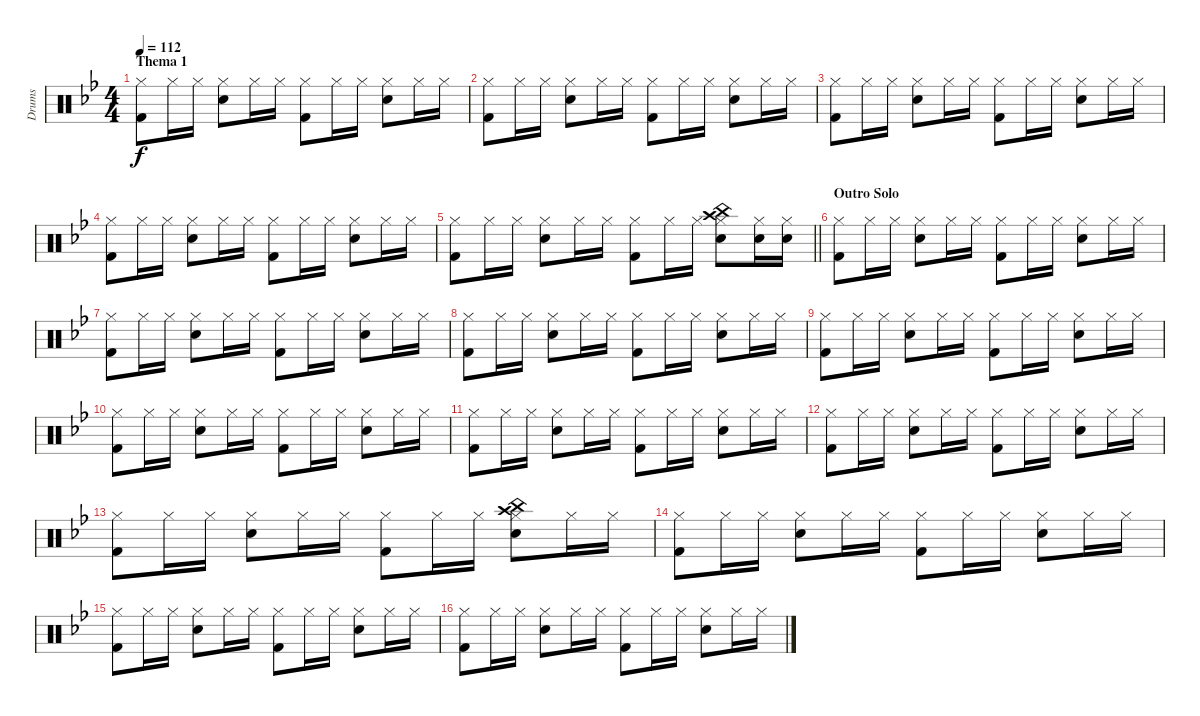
\track ("Drums" "Drums") {instrument percussion}
\staff {score}
\articulation defaults
\ts (4 4)
\section ("" "Thema 1")
\tempo 112
\clef neutral
\ks bb
("Hi-Hat (closed)" "Kick (hit) 2").8{dy f} "Hi-Hat (closed)".16 "Hi-Hat (closed)".16 ("Snare (hit) 2" "Hi-Hat (closed)").8 "Hi-Hat (closed)".16 "Hi-Hat (closed)".16 ("Hi-Hat (closed)" "Kick (hit) 2").8 "Hi-Hat (closed)".16 "Hi-Hat (closed)".16 ("Snare (hit) 2" "Hi-Hat (closed)").8 "Hi-Hat (closed)".16 "Hi-Hat (closed)".16 |
("Hi-Hat (closed)" "Kick (hit) 2").8 "Hi-Hat (closed)".16 "Hi-Hat (closed)".16 ("Snare (hit) 2" "Hi-Hat (closed)").8 "Hi-Hat (closed)".16 "Hi-Hat (closed)".16 ("Hi-Hat (closed)" "Kick (hit) 2").8 "Hi-Hat (closed)".16 "Hi-Hat (closed)".16 ("Snare (hit) 2" "Hi-Hat (closed)").8 "Hi-Hat (closed)".16 "Hi-Hat (closed)".16 |
("Hi-Hat (closed)" "Kick (hit) 2").8 "Hi-Hat (closed)".16 "Hi-Hat (closed)".16 ("Snare (hit) 2" "Hi-Hat (closed)").8 "Hi-Hat (closed)".16 "Hi-Hat (closed)".16 ("Hi-Hat (closed)" "Kick (hit) 2").8 "Hi-Hat (closed)".16 "Hi-Hat (closed)".16 ("Snare (hit) 2" "Hi-Hat (closed)").8 "Hi-Hat (closed)".16 "Hi-Hat (closed)".16 |
("Hi-Hat (closed)" "Kick (hit) 2").8 "Hi-Hat (closed)".16 "Hi-Hat (closed)".16 ("Snare (hit) 2" "Hi-Hat (closed)").8 "Hi-Hat (closed)".16 "Hi-Hat (closed)".16 ("Hi-Hat (closed)" "Kick (hit) 2").8 "Hi-Hat (closed)".16 "Hi-Hat (closed)".16 ("Snare (hit) 2" "Hi-Hat (closed)").8 "Hi-Hat (closed)".16 "Hi-Hat (closed)".16 |
\barLineRight lightlight
("Hi-Hat (closed)" "Kick (hit) 2").8 "Hi-Hat (closed)".16 "Hi-Hat (closed)".16 ("Snare (hit) 2" "Hi-Hat (closed)").8 "Hi-Hat (closed)".16 "Hi-Hat (closed)".16 ("Hi-Hat (closed)" "Kick (hit) 2").8 "Hi-Hat (closed)".16 "Hi-Hat (closed)".16 ("Snare (hit) 2" "Hi-Hat (closed)" "Crash high (hit)" "China (hit)").8 ("Hi-Hat (closed)" "Snare (hit) 2").16 ("Hi-Hat (closed)" "Snare (hit) 2").16 |
\section ("" "Outro Solo")
("Hi-Hat (closed)" "Kick (hit) 2").8 "Hi-Hat (closed)".16 "Hi-Hat (closed)".16 ("Snare (hit) 2" "Hi-Hat (closed)").8 "Hi-Hat (closed)".16 "Hi-Hat (closed)".16 ("Hi-Hat (closed)" "Kick (hit) 2").8 "Hi-Hat (closed)".16 "Hi-Hat (closed)".16 ("Snare (hit) 2" "Hi-Hat (closed)").8 "Hi-Hat (closed)".16 "Hi-Hat (closed)".16 |
("Hi-Hat (closed)" "Kick (hit) 2").8 "Hi-Hat (closed)".16 "Hi-Hat (closed)".16 ("Snare (hit) 2" "Hi-Hat (closed)").8 "Hi-Hat (closed)".16 "Hi-Hat (closed)".16 ("Hi-Hat (closed)" "Kick (hit) 2").8 "Hi-Hat (closed)".16 "Hi-Hat (closed)".16 ("Snare (hit) 2" "Hi-Hat (closed)").8 "Hi-Hat (closed)".16 "Hi-Hat (closed)".16 |
("Hi-Hat (closed)" "Kick (hit) 2").8 "Hi-Hat (closed)".16 "Hi-Hat (closed)".16 ("Snare (hit) 2" "Hi-Hat (closed)").8 "Hi-Hat (closed)".16 "Hi-Hat (closed)".16 ("Hi-Hat (closed)" "Kick (hit) 2").8 "Hi-Hat (closed)".16 "Hi-Hat (closed)".16 ("Snare (hit) 2" "Hi-Hat (closed)").8 "Hi-Hat (closed)".16 "Hi-Hat (closed)".16 |
("Hi-Hat (closed)" "Kick (hit) 2").8 "Hi-Hat (closed)".16 "Hi-Hat (closed)".16 ("Snare (hit) 2" "Hi-Hat (closed)").8 "Hi-Hat (closed)".16 "Hi-Hat (closed)".16 ("Hi-Hat (closed)" "Kick (hit) 2").8 "Hi-Hat (closed)".16 "Hi-Hat (closed)".16 ("Snare (hit) 2" "Hi-Hat (closed)").8 "Hi-Hat (closed)".16 "Hi-Hat (closed)".16 |
("Hi-Hat (closed)" "Kick (hit) 2").8 "Hi-Hat (closed)".16 "Hi-Hat (closed)".16 ("Snare (hit) 2" "Hi-Hat (closed)").8 "Hi-Hat (closed)".16 "Hi-Hat (closed)".16 ("Hi-Hat (closed)" "Kick (hit) 2").8 "Hi-Hat (closed)".16 "Hi-Hat (closed)".16 ("Snare (hit) 2" "Hi-Hat (closed)").8 "Hi-Hat (closed)".16 "Hi-Hat (closed)".16 |
("Hi-Hat (closed)" "Kick (hit) 2").8 "Hi-Hat (closed)".16 "Hi-Hat (closed)".16 ("Snare (hit) 2" "Hi-Hat (closed)").8 "Hi-Hat (closed)".16 "Hi-Hat (closed)".16 ("Hi-Hat (closed)" "Kick (hit) 2").8 "Hi-Hat (closed)".16 "Hi-Hat (closed)".16 ("Snare (hit) 2" "Hi-Hat (closed)").8 "Hi-Hat (closed)".16 "Hi-Hat (closed)".16 |
("Hi-Hat (closed)" "Kick (hit) 2").8 "Hi-Hat (closed)".16 "Hi-Hat (closed)".16 ("Snare (hit) 2" "Hi-Hat (closed)").8 "Hi-Hat (closed)".16 "Hi-Hat (closed)".16 ("Hi-Hat (closed)" "Kick (hit) 2").8 "Hi-Hat (closed)".16 "Hi-Hat (closed)".16 ("Snare (hit) 2" "Hi-Hat (closed)").8 "Hi-Hat (closed)".16 "Hi-Hat (closed)".16 |
("Hi-Hat (closed)" "Kick (hit) 2").8 "Hi-Hat (closed)".16 "Hi-Hat (closed)".16 ("Snare (hit) 2" "Hi-Hat (closed)").8 "Hi-Hat (closed)".16 "Hi-Hat (closed)".16 ("Hi-Hat (closed)" "Kick (hit) 2").8 "Hi-Hat (closed)".16 "Hi-Hat (closed)".16 ("Snare (hit) 2" "Hi-Hat (closed)" "Crash high (hit)" "China (hit)").8 "Hi-Hat (closed)".16 "Hi-Hat (closed)".16 |
("Hi-Hat (closed)" "Kick (hit) 2").8 "Hi-Hat (closed)".16 "Hi-Hat (closed)".16 ("Snare (hit) 2" "Hi-Hat (closed)").8 "Hi-Hat (closed)".16 "Hi-Hat (closed)".16 ("Hi-Hat (closed)" "Kick (hit) 2").8 "Hi-Hat (closed)".16 "Hi-Hat (closed)".16 ("Snare (hit) 2" "Hi-Hat (closed)").8 "Hi-Hat (closed)".16 "Hi-Hat (closed)".16 |
("Hi-Hat (closed)" "Kick (hit) 2").8 "Hi-Hat (closed)".16 "Hi-Hat (closed)".16 ("Snare (hit) 2" "Hi-Hat (closed)").8 "Hi-Hat (closed)".16 "Hi-Hat (closed)".16 ("Hi-Hat (closed)" "Kick (hit) 2").8 "Hi-Hat (closed)".16 "Hi-Hat (closed)".16 ("Snare (hit) 2" "Hi-Hat (closed)").8 "Hi-Hat (closed)".16 "Hi-Hat (closed)".16 |
("Hi-Hat (closed)" "Kick (hit) 2").8 "Hi-Hat (closed)".16 "Hi-Hat (closed)".16 ("Snare (hit) 2" "Hi-Hat (closed)").8 "Hi-Hat (closed)".16 "Hi-Hat (closed)".16 ("Hi-Hat (closed)" "Kick (hit) 2").8 "Hi-Hat (closed)".16 "Hi-Hat (closed)".16 ("Snare (hit) 2" "Hi-Hat (closed)").8 "Hi-Hat (closed)".16 "Hi-Hat (closed)".16
